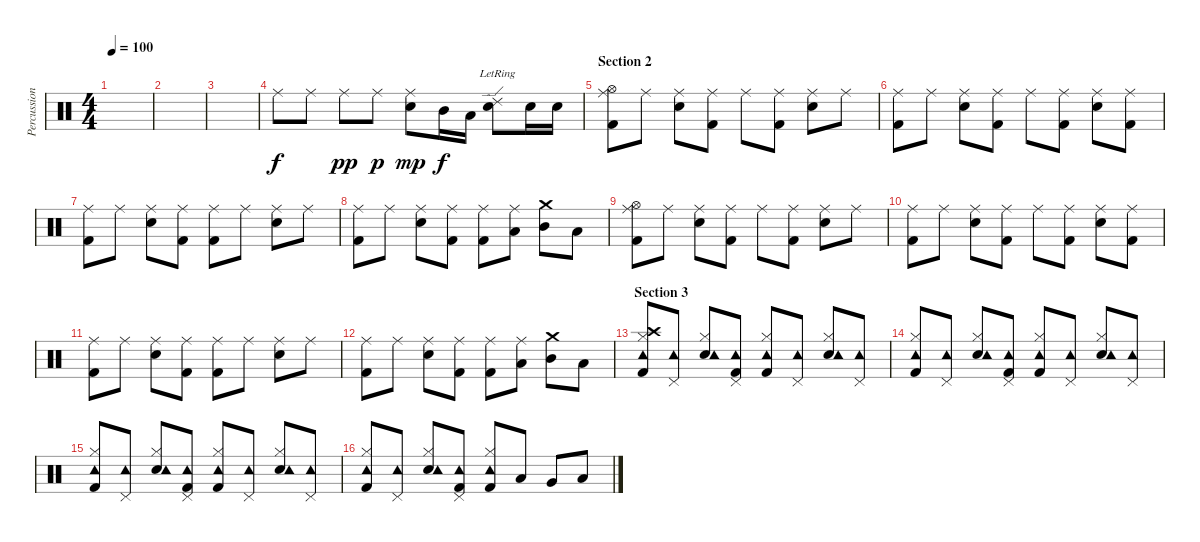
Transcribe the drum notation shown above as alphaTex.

\track ("Percussion" "Percussion") {instrument percussion}
\staff {score}
\articulation defaults
\ts (4 4)
\tempo 100
\clef neutral
\ks c
|
|
|
"Ride (middle)".8 "Ride (middle)".8 "Ride (middle)".8{dy pp} "Ride (middle)".8{dy p} ("Ride (middle)" "Electric Snare (hit)").8{dy mp} "Mid Tom (hit)".16{dy f} "Low Tom (hit)".16 ("Ride (edge) 2"{lr} "Electric Snare (hit)").8 "Electric Snare (hit)".16 "Electric Snare (hit)".16 |
\section ("" "Section 2")
("Hi-Hat (open)" "Ride (middle)" "Kick (hit) 2").8 "Ride (middle)".8 ("Ride (middle)" "Electric Snare (hit)").8 ("Ride (middle)" "Kick (hit) 2").8 "Ride (middle)".8 ("Ride (middle)" "Kick (hit) 2").8 ("Ride (middle)" "Electric Snare (hit)").8 "Ride (middle)".8 |
("Ride (middle)" "Kick (hit) 2").8 "Ride (middle)".8 ("Ride (middle)" "Electric Snare (hit)").8 ("Ride (middle)" "Kick (hit) 2").8 "Ride (middle)".8 ("Ride (middle)" "Kick (hit) 2").8 ("Ride (middle)" "Electric Snare (hit)").8 ("Ride (middle)" "Kick (hit) 2").8 |
("Ride (middle)" "Kick (hit) 2").8 "Ride (middle)".8 ("Ride (middle)" "Electric Snare (hit)").8 ("Ride (middle)" "Kick (hit) 2").8 ("Ride (middle)" "Kick (hit) 2").8 "Ride (middle)".8 ("Ride (middle)" "Electric Snare (hit)").8 "Ride (middle)".8 |
("Ride (middle)" "Kick (hit) 2").8 "Ride (middle)".8 ("Ride (middle)" "Electric Snare (hit)").8 ("Ride (middle)" "Kick (hit) 2").8 ("Ride (middle)" "Kick (hit) 2").8 ("Ride (middle)" "Low Tom (hit)").8 ("Crash medium (hit)" "Mid Tom (hit)").8 "Low Tom (hit)".8 |
("Hi-Hat (open)" "Ride (middle)" "Kick (hit) 2").8 "Ride (middle)".8 ("Ride (middle)" "Electric Snare (hit)").8 ("Ride (middle)" "Kick (hit) 2").8 "Ride (middle)".8 ("Ride (middle)" "Kick (hit) 2").8 ("Ride (middle)" "Electric Snare (hit)").8 "Ride (middle)".8 |
("Ride (middle)" "Kick (hit) 2").8 "Ride (middle)".8 ("Ride (middle)" "Electric Snare (hit)").8 ("Ride (middle)" "Kick (hit) 2").8 "Ride (middle)".8 ("Ride (middle)" "Kick (hit) 2").8 ("Ride (middle)" "Electric Snare (hit)").8 ("Ride (middle)" "Kick (hit) 2").8 |
("Ride (middle)" "Kick (hit) 2").8 "Ride (middle)".8 ("Ride (middle)" "Electric Snare (hit)").8 ("Ride (middle)" "Kick (hit) 2").8 ("Ride (middle)" "Kick (hit) 2").8 "Ride (middle)".8 ("Ride (middle)" "Electric Snare (hit)").8 "Ride (middle)".8 |
("Ride (middle)" "Kick (hit) 2").8 "Ride (middle)".8 ("Ride (middle)" "Electric Snare (hit)").8 ("Ride (middle)" "Kick (hit) 2").8 ("Ride (middle)" "Kick (hit) 2").8 ("Ride (middle)" "Low Tom (hit)").8 ("Crash medium (hit)" "Mid Tom (hit)").8 "Low Tom (hit)".8 |
\section ("" "Section 3")
("Crash high (hit)" "Kick (hit) 2" "Hi-Hat (closed)" "Tambourine (hit)").8 ("Pedal Hi-Hat (hit)" "Tambourine (hit)").8 ("Electric Snare (hit)" "Hi-Hat (closed)" "Tambourine (hit)").8 ("Kick (hit) 2" "Pedal Hi-Hat (hit)" "Tambourine (hit)").8 ("Kick (hit) 2" "Hi-Hat (closed)" "Tambourine (hit)").8 ("Pedal Hi-Hat (hit)" "Tambourine (hit)").8 ("Electric Snare (hit)" "Hi-Hat (closed)" "Tambourine (hit)").8 ("Pedal Hi-Hat (hit)" "Tambourine (hit)").8 |
("Kick (hit) 2" "Hi-Hat (closed)" "Tambourine (hit)").8 ("Pedal Hi-Hat (hit)" "Tambourine (hit)").8 ("Electric Snare (hit)" "Hi-Hat (closed)" "Tambourine (hit)").8 ("Kick (hit) 2" "Pedal Hi-Hat (hit)" "Tambourine (hit)").8 ("Kick (hit) 2" "Hi-Hat (closed)" "Tambourine (hit)").8 ("Pedal Hi-Hat (hit)" "Tambourine (hit)").8 ("Electric Snare (hit)" "Hi-Hat (closed)" "Tambourine (hit)").8 ("Pedal Hi-Hat (hit)" "Tambourine (hit)").8 |
("Kick (hit) 2" "Hi-Hat (closed)" "Tambourine (hit)").8 ("Pedal Hi-Hat (hit)" "Tambourine (hit)").8 ("Electric Snare (hit)" "Hi-Hat (closed)" "Tambourine (hit)").8 ("Kick (hit) 2" "Pedal Hi-Hat (hit)" "Tambourine (hit)").8 ("Kick (hit) 2" "Hi-Hat (closed)" "Tambourine (hit)").8 ("Pedal Hi-Hat (hit)" "Tambourine (hit)").8 ("Electric Snare (hit)" "Hi-Hat (closed)" "Tambourine (hit)").8 ("Pedal Hi-Hat (hit)" "Tambourine (hit)").8 |
("Kick (hit) 2" "Hi-Hat (closed)" "Tambourine (hit)").8 ("Pedal Hi-Hat (hit)" "Tambourine (hit)").8 ("Electric Snare (hit)" "Hi-Hat (closed)" "Tambourine (hit)").8 ("Kick (hit) 2" "Pedal Hi-Hat (hit)" "Tambourine (hit)").8 ("Kick (hit) 2" "Hi-Hat (closed)" "Tambourine (hit)").8 "Low Tom (hit)".8 "Very Low Tom (hit)".8 "Low Tom (hit)".8
